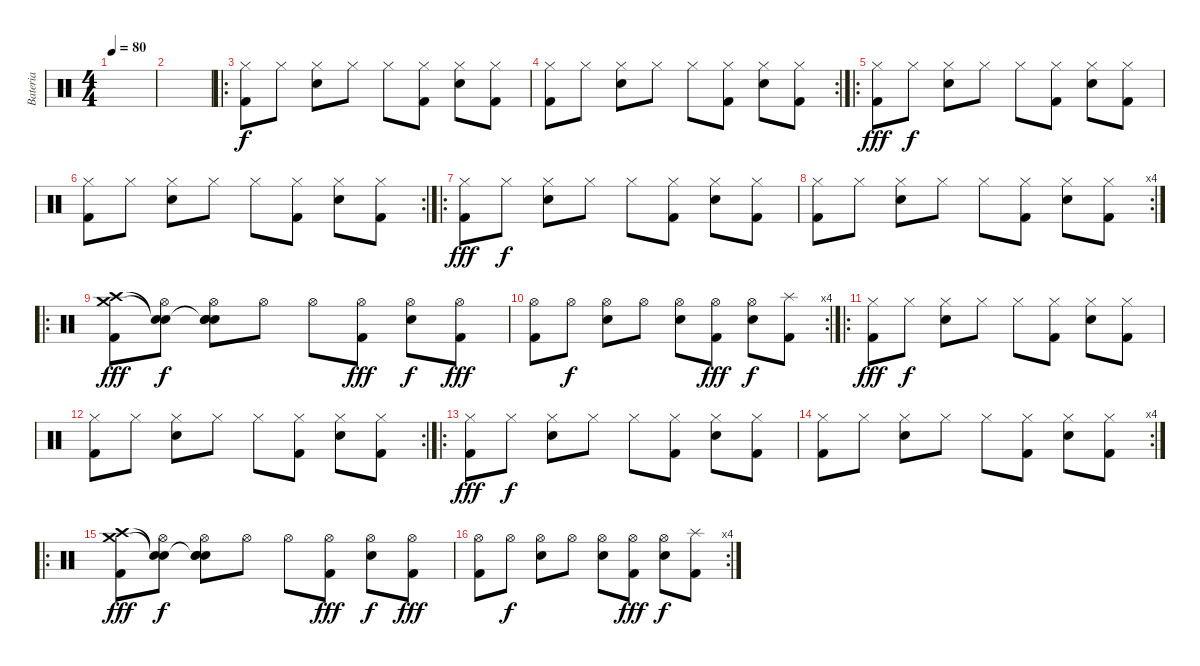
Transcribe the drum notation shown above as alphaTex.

\track ("Bateria" "Bateria") {instrument percussion}
\staff {score}
\articulation defaults
\ts (4 4)
\tempo 80
\clef neutral
\ks c
|
|
\ro
("Hi-Hat (closed)" "Kick (hit) 2").8 "Hi-Hat (closed)".8 ("Hi-Hat (closed)" "Snare (hit) 2").8 "Hi-Hat (closed)".8 "Hi-Hat (closed)".8 ("Hi-Hat (closed)" "Kick (hit) 2").8 ("Hi-Hat (closed)" "Snare (hit) 2").8 ("Hi-Hat (closed)" "Kick (hit) 2").8 |
\rc 2
("Hi-Hat (closed)" "Kick (hit) 2").8 "Hi-Hat (closed)".8 ("Hi-Hat (closed)" "Snare (hit) 2").8 "Hi-Hat (closed)".8 "Hi-Hat (closed)".8 ("Hi-Hat (closed)" "Kick (hit) 2").8 ("Hi-Hat (closed)" "Snare (hit) 2").8 ("Hi-Hat (closed)" "Kick (hit) 2").8 |
\ro
("Hi-Hat (closed)" "Kick (hit) 2").8{dy fff} "Hi-Hat (closed)".8{dy f} ("Hi-Hat (closed)" "Snare (hit) 2").8 "Hi-Hat (closed)".8 "Hi-Hat (closed)".8 ("Hi-Hat (closed)" "Kick (hit) 2").8 ("Hi-Hat (closed)" "Snare (hit) 2").8 ("Hi-Hat (closed)" "Kick (hit) 2").8 |
\rc 2
("Hi-Hat (closed)" "Kick (hit) 2").8 "Hi-Hat (closed)".8 ("Hi-Hat (closed)" "Snare (hit) 2").8 "Hi-Hat (closed)".8 "Hi-Hat (closed)".8 ("Hi-Hat (closed)" "Kick (hit) 2").8 ("Hi-Hat (closed)" "Snare (hit) 2").8 ("Hi-Hat (closed)" "Kick (hit) 2").8 |
\ro
("Hi-Hat (closed)" "Kick (hit) 2").8{dy fff} "Hi-Hat (closed)".8{dy f} ("Hi-Hat (closed)" "Snare (hit) 2").8 "Hi-Hat (closed)".8 "Hi-Hat (closed)".8 ("Hi-Hat (closed)" "Kick (hit) 2").8 ("Hi-Hat (closed)" "Snare (hit) 2").8 ("Hi-Hat (closed)" "Kick (hit) 2").8 |
\rc 4
("Hi-Hat (closed)" "Kick (hit) 2").8 "Hi-Hat (closed)".8 ("Hi-Hat (closed)" "Snare (hit) 2").8 "Hi-Hat (closed)".8 "Hi-Hat (closed)".8 ("Hi-Hat (closed)" "Kick (hit) 2").8 ("Hi-Hat (closed)" "Snare (hit) 2").8 ("Hi-Hat (closed)" "Kick (hit) 2").8 |
\ro
("Kick (hit) 2" "Crash high (hit)" "Crash medium (hit)").8{dy fff} ("Hi-Hat (open)" "Snare (hit)"{t} "Snare (hit)"{t}).8{dy f} ("Hi-Hat (open)" "Snare (hit) 2" "Snare (hit)"{t} "Snare (hit)").8 "Hi-Hat (open)".8 "Hi-Hat (open)".8 ("Hi-Hat (open)" "Kick (hit) 2").8{dy fff} ("Hi-Hat (open)" "Snare (hit) 2").8{dy f} ("Hi-Hat (open)" "Kick (hit) 2").8{dy fff} |
\rc 4
("Hi-Hat (open)" "Kick (hit) 2").8 "Hi-Hat (open)".8{dy f} ("Hi-Hat (open)" "Snare (hit) 2").8 "Hi-Hat (open)".8 ("Hi-Hat (open)" "Snare (hit) 2").8 ("Hi-Hat (open)" "Kick (hit) 2").8{dy fff} ("Hi-Hat (open)" "Snare (hit) 2").8{dy f} ("Kick (hit) 2" "Splash (hit)").8 |
\ro
("Hi-Hat (closed)" "Kick (hit) 2").8{dy fff} "Hi-Hat (closed)".8{dy f} ("Hi-Hat (closed)" "Snare (hit) 2").8 "Hi-Hat (closed)".8 "Hi-Hat (closed)".8 ("Hi-Hat (closed)" "Kick (hit) 2").8 ("Hi-Hat (closed)" "Snare (hit) 2").8 ("Hi-Hat (closed)" "Kick (hit) 2").8 |
\rc 2
("Hi-Hat (closed)" "Kick (hit) 2").8 "Hi-Hat (closed)".8 ("Hi-Hat (closed)" "Snare (hit) 2").8 "Hi-Hat (closed)".8 "Hi-Hat (closed)".8 ("Hi-Hat (closed)" "Kick (hit) 2").8 ("Hi-Hat (closed)" "Snare (hit) 2").8 ("Hi-Hat (closed)" "Kick (hit) 2").8 |
\ro
("Hi-Hat (closed)" "Kick (hit) 2").8{dy fff} "Hi-Hat (closed)".8{dy f} ("Hi-Hat (closed)" "Snare (hit) 2").8 "Hi-Hat (closed)".8 "Hi-Hat (closed)".8 ("Hi-Hat (closed)" "Kick (hit) 2").8 ("Hi-Hat (closed)" "Snare (hit) 2").8 ("Hi-Hat (closed)" "Kick (hit) 2").8 |
\rc 4
("Hi-Hat (closed)" "Kick (hit) 2").8 "Hi-Hat (closed)".8 ("Hi-Hat (closed)" "Snare (hit) 2").8 "Hi-Hat (closed)".8 "Hi-Hat (closed)".8 ("Hi-Hat (closed)" "Kick (hit) 2").8 ("Hi-Hat (closed)" "Snare (hit) 2").8 ("Hi-Hat (closed)" "Kick (hit) 2").8 |
\ro
("Kick (hit) 2" "Crash high (hit)" "Crash medium (hit)").8{dy fff} ("Hi-Hat (open)" "Snare (hit)"{t} "Snare (hit)"{t}).8{dy f} ("Hi-Hat (open)" "Snare (hit) 2" "Snare (hit)"{t} "Snare (hit)").8 "Hi-Hat (open)".8 "Hi-Hat (open)".8 ("Hi-Hat (open)" "Kick (hit) 2").8{dy fff} ("Hi-Hat (open)" "Snare (hit) 2").8{dy f} ("Hi-Hat (open)" "Kick (hit) 2").8{dy fff} |
\rc 4
("Hi-Hat (open)" "Kick (hit) 2").8 "Hi-Hat (open)".8{dy f} ("Hi-Hat (open)" "Snare (hit) 2").8 "Hi-Hat (open)".8 ("Hi-Hat (open)" "Snare (hit) 2").8 ("Hi-Hat (open)" "Kick (hit) 2").8{dy fff} ("Hi-Hat (open)" "Snare (hit) 2").8{dy f} ("Kick (hit) 2" "Splash (hit)").8
